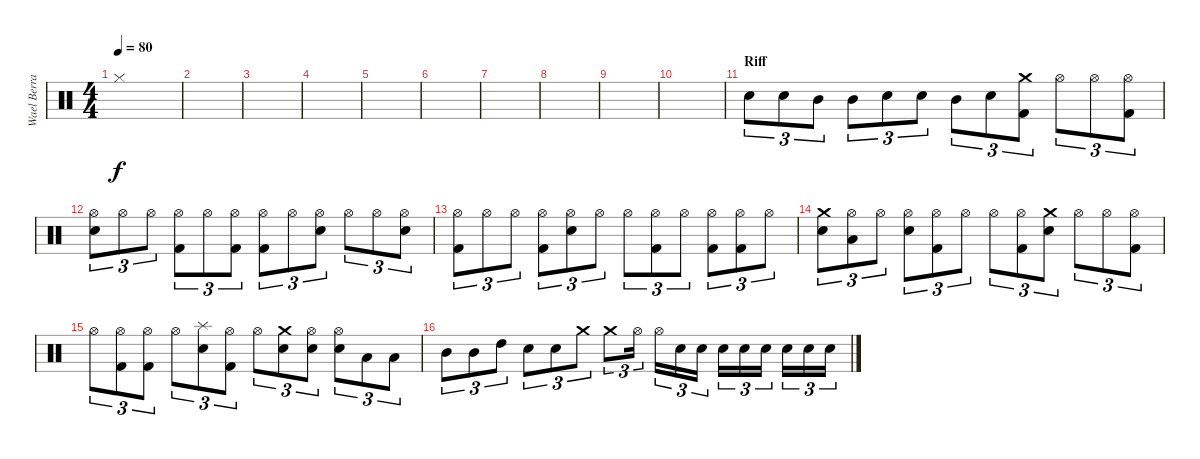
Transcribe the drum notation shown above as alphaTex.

\track ("Wael Berrais" "Wael Berra") {instrument percussion}
\staff {score}
\articulation defaults
\ts (4 4)
\tempo 80
\clef neutral
\ks c "Hi-Hat (closed)".1{dy f}
|
|
|
|
|
|
|
|
|
|
\section ("" "Riff")
"Electric Snare (hit)".8{tu (3 2)} "Electric Snare (hit)".8{tu (3 2)} "Mid Tom (hit)".8{tu (3 2)} "Mid Tom (hit)".8{tu (3 2)} "Electric Snare (hit)".8{tu (3 2)} "Electric Snare (hit)".8{tu (3 2)} "Mid Tom (hit)".8{tu (3 2)} "Electric Snare (hit)".8{tu (3 2)} ("Crash medium (hit)" "Kick (hit) 2").8{tu (3 2)} "Hi-Hat (open)".8{tu (3 2)} "Hi-Hat (open)".8{tu (3 2)} ("Hi-Hat (open)" "Kick (hit) 2").8{tu (3 2)} |
("Hi-Hat (open)" "Electric Snare (hit)").8{tu (3 2)} "Hi-Hat (open)".8{tu (3 2)} "Hi-Hat (open)".8{tu (3 2)} ("Hi-Hat (open)" "Kick (hit) 2").8{tu (3 2)} "Hi-Hat (open)".8{tu (3 2)} ("Hi-Hat (open)" "Kick (hit) 2").8{tu (3 2)} ("Hi-Hat (open)" "Kick (hit) 2").8{tu (3 2)} "Hi-Hat (open)".8{tu (3 2)} ("Hi-Hat (open)" "Electric Snare (hit)").8{tu (3 2)} "Hi-Hat (open)".8{tu (3 2)} "Hi-Hat (open)".8{tu (3 2)} ("Hi-Hat (open)" "Electric Snare (hit)").8{tu (3 2)} |
("Hi-Hat (open)" "Kick (hit) 2").8{tu (3 2)} "Hi-Hat (open)".8{tu (3 2)} "Hi-Hat (open)".8{tu (3 2)} ("Hi-Hat (open)" "Kick (hit) 2").8{tu (3 2)} ("Hi-Hat (open)" "Electric Snare (hit)").8{tu (3 2)} "Hi-Hat (open)".8{tu (3 2)} "Hi-Hat (open)".8{tu (3 2)} ("Hi-Hat (open)" "Kick (hit) 2").8{tu (3 2)} "Hi-Hat (open)".8{tu (3 2)} ("Hi-Hat (open)" "Kick (hit) 2").8{tu (3 2)} ("Hi-Hat (open)" "Kick (hit) 2").8{tu (3 2)} "Hi-Hat (open)".8{tu (3 2)} |
("Crash medium (hit)" "Electric Snare (hit)").8{tu (3 2)} ("Hi-Hat (open)" "Low Tom (hit)").8{tu (3 2)} "Hi-Hat (open)".8{tu (3 2)} ("Hi-Hat (open)" "Electric Snare (hit)").8{tu (3 2)} ("Hi-Hat (open)" "Kick (hit) 2").8{tu (3 2)} "Hi-Hat (open)".8{tu (3 2)} "Hi-Hat (open)".8{tu (3 2)} ("Hi-Hat (open)" "Kick (hit) 2").8{tu (3 2)} ("Crash medium (hit)" "Electric Snare (hit)").8{tu (3 2)} "Hi-Hat (open)".8{tu (3 2)} "Hi-Hat (open)".8{tu (3 2)} ("Hi-Hat (open)" "Kick (hit) 2").8{tu (3 2)} |
"Hi-Hat (open)".8{tu (3 2)} ("Hi-Hat (open)" "Kick (hit) 2").8{tu (3 2)} ("Hi-Hat (open)" "Kick (hit) 2").8{tu (3 2)} "Hi-Hat (open)".8{tu (3 2)} ("Splash (hit)" "Electric Snare (hit)").8{tu (3 2)} ("Hi-Hat (open)" "Kick (hit) 2").8{tu (3 2)} "Hi-Hat (open)".8{tu (3 2)} ("Crash medium (hit)" "Electric Snare (hit)").8{tu (3 2)} ("Hi-Hat (open)" "Electric Snare (hit)").8{tu (3 2)} ("Hi-Hat (open)" "Electric Snare (hit)").8{tu (3 2)} "Low Tom (hit)".8{tu (3 2)} "Low Tom (hit)".8{tu (3 2)} |
"Mid Tom (hit)".8{tu (3 2)} "Mid Tom (hit)".8{tu (3 2)} "High Tom (hit)".8{tu (3 2)} "Electric Snare (hit)".8{tu (3 2)} "Electric Snare (hit)".8{tu (3 2)} "Crash medium (hit)".8{tu (3 2)} "Crash medium (hit)".8{tu (3 2)} "Hi-Hat (open)".16{tu (3 2)} "Hi-Hat (open)".16{tu (3 2)} "Electric Snare (hit)".16{tu (3 2)} "Electric Snare (hit)".16{tu (3 2)} "Electric Snare (hit)".16{tu (3 2)} "Electric Snare (hit)".16{tu (3 2)} "Electric Snare (hit)".16{tu (3 2)} "Electric Snare (hit)".16{tu (3 2)} "Electric Snare (hit)".16{tu (3 2)} "Electric Snare (hit)".16{tu (3 2)}
